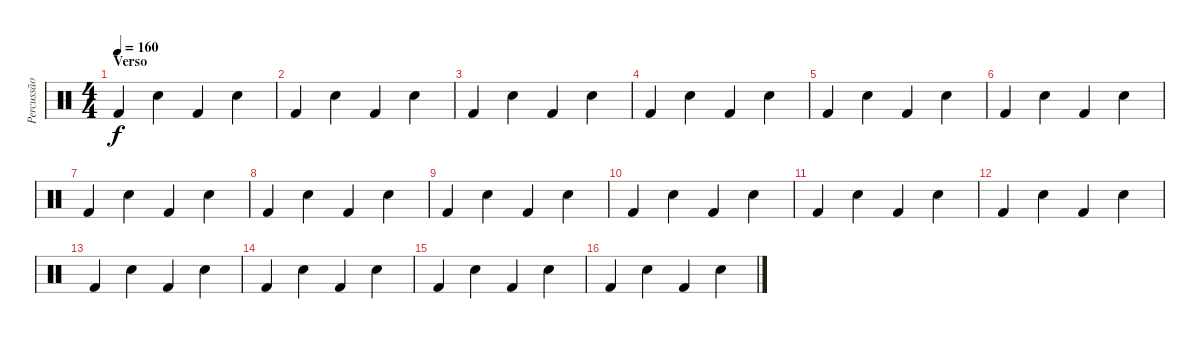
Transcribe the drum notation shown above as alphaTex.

\track ("Percussão" "Percussão") {instrument percussion}
\staff {score}
\articulation defaults
\ts (4 4)
\section ("" "Verso")
\tempo 160
\clef neutral
\ks c "Kick (hit) 2".4{dy f} "Snare (hit) 2".4 "Kick (hit) 2".4 "Snare (hit) 2".4
|
"Kick (hit) 2".4 "Snare (hit) 2".4 "Kick (hit) 2".4 "Snare (hit) 2".4 |
"Kick (hit) 2".4 "Snare (hit) 2".4 "Kick (hit) 2".4 "Snare (hit) 2".4 |
"Kick (hit) 2".4 "Snare (hit) 2".4 "Kick (hit) 2".4 "Snare (hit) 2".4 |
"Kick (hit) 2".4 "Snare (hit) 2".4 "Kick (hit) 2".4 "Snare (hit) 2".4 |
"Kick (hit) 2".4 "Snare (hit) 2".4 "Kick (hit) 2".4 "Snare (hit) 2".4 |
"Kick (hit) 2".4 "Snare (hit) 2".4 "Kick (hit) 2".4 "Snare (hit) 2".4 |
"Kick (hit) 2".4 "Snare (hit) 2".4 "Kick (hit) 2".4 "Snare (hit) 2".4 |
"Kick (hit) 2".4 "Snare (hit) 2".4 "Kick (hit) 2".4 "Snare (hit) 2".4 |
"Kick (hit) 2".4 "Snare (hit) 2".4 "Kick (hit) 2".4 "Snare (hit) 2".4 |
"Kick (hit) 2".4 "Snare (hit) 2".4 "Kick (hit) 2".4 "Snare (hit) 2".4 |
"Kick (hit) 2".4 "Snare (hit) 2".4 "Kick (hit) 2".4 "Snare (hit) 2".4 |
"Kick (hit) 2".4 "Snare (hit) 2".4 "Kick (hit) 2".4 "Snare (hit) 2".4 |
"Kick (hit) 2".4 "Snare (hit) 2".4 "Kick (hit) 2".4 "Snare (hit) 2".4 |
"Kick (hit) 2".4 "Snare (hit) 2".4 "Kick (hit) 2".4 "Snare (hit) 2".4 |
"Kick (hit) 2".4 "Snare (hit) 2".4 "Kick (hit) 2".4 "Snare (hit) 2".4
